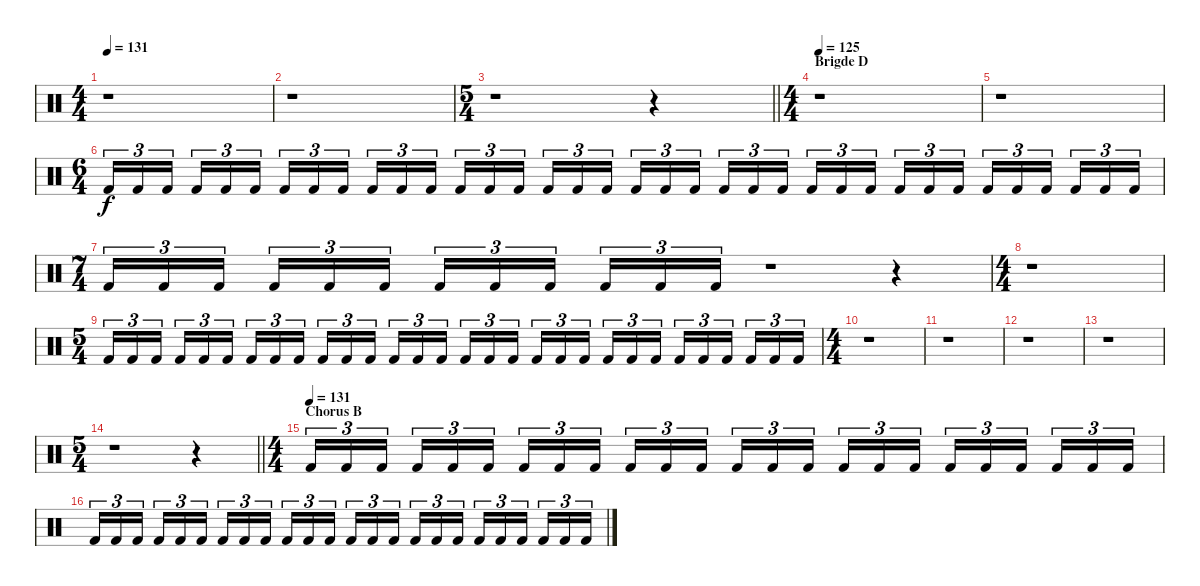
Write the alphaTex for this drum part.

\track "" {instrument percussion}
\staff {score}
\articulation defaults
\ts (4 4)
\tempo 131
\clef neutral
\ks c
r.1{dy f} |
r.1 |
\ts (5 4)
\barLineRight lightlight
r.1 r.4 |
\ts (4 4)
\section ("" "Brigde D")
\tempo 125
r.1 |
r.1 |
\ts (6 4)
"Kick (hit) 2".16{tu (3 2)} "Kick (hit) 2".16{tu (3 2)} "Kick (hit) 2".16{tu (3 2) beam splitsecondary} "Kick (hit) 2".16{tu (3 2)} "Kick (hit) 2".16{tu (3 2)} "Kick (hit) 2".16{tu (3 2) beam splitsecondary} "Kick (hit) 2".16{tu (3 2)} "Kick (hit) 2".16{tu (3 2)} "Kick (hit) 2".16{tu (3 2) beam splitsecondary} "Kick (hit) 2".16{tu (3 2)} "Kick (hit) 2".16{tu (3 2)} "Kick (hit) 2".16{tu (3 2) beam splitsecondary} "Kick (hit) 2".16{tu (3 2)} "Kick (hit) 2".16{tu (3 2)} "Kick (hit) 2".16{tu (3 2) beam splitsecondary} "Kick (hit) 2".16{tu (3 2)} "Kick (hit) 2".16{tu (3 2)} "Kick (hit) 2".16{tu (3 2)} "Kick (hit) 2".16{tu (3 2)} "Kick (hit) 2".16{tu (3 2)} "Kick (hit) 2".16{tu (3 2) beam splitsecondary} "Kick (hit) 2".16{tu (3 2)} "Kick (hit) 2".16{tu (3 2)} "Kick (hit) 2".16{tu (3 2) beam splitsecondary} "Kick (hit) 2".16{tu (3 2)} "Kick (hit) 2".16{tu (3 2)} "Kick (hit) 2".16{tu (3 2) beam splitsecondary} "Kick (hit) 2".16{tu (3 2)} "Kick (hit) 2".16{tu (3 2)} "Kick (hit) 2".16{tu (3 2) beam splitsecondary} "Kick (hit) 2".16{tu (3 2)} "Kick (hit) 2".16{tu (3 2)} "Kick (hit) 2".16{tu (3 2) beam splitsecondary} "Kick (hit) 2".16{tu (3 2)} "Kick (hit) 2".16{tu (3 2)} "Kick (hit) 2".16{tu (3 2)} |
\ts (7 4)
"Kick (hit) 2".16{tu (3 2)} "Kick (hit) 2".16{tu (3 2)} "Kick (hit) 2".16{tu (3 2) beam splitsecondary} "Kick (hit) 2".16{tu (3 2)} "Kick (hit) 2".16{tu (3 2)} "Kick (hit) 2".16{tu (3 2)} "Kick (hit) 2".16{tu (3 2)} "Kick (hit) 2".16{tu (3 2)} "Kick (hit) 2".16{tu (3 2) beam splitsecondary} "Kick (hit) 2".16{tu (3 2)} "Kick (hit) 2".16{tu (3 2)} "Kick (hit) 2".16{tu (3 2)} r.1 r.4 |
\ts (4 4)
r.1 |
\ts (5 4)
"Kick (hit) 2".16{tu (3 2)} "Kick (hit) 2".16{tu (3 2)} "Kick (hit) 2".16{tu (3 2) beam splitsecondary} "Kick (hit) 2".16{tu (3 2)} "Kick (hit) 2".16{tu (3 2)} "Kick (hit) 2".16{tu (3 2)} "Kick (hit) 2".16{tu (3 2)} "Kick (hit) 2".16{tu (3 2)} "Kick (hit) 2".16{tu (3 2) beam splitsecondary} "Kick (hit) 2".16{tu (3 2)} "Kick (hit) 2".16{tu (3 2)} "Kick (hit) 2".16{tu (3 2)} "Kick (hit) 2".16{tu (3 2)} "Kick (hit) 2".16{tu (3 2)} "Kick (hit) 2".16{tu (3 2) beam splitsecondary} "Kick (hit) 2".16{tu (3 2)} "Kick (hit) 2".16{tu (3 2)} "Kick (hit) 2".16{tu (3 2)} "Kick (hit) 2".16{tu (3 2)} "Kick (hit) 2".16{tu (3 2)} "Kick (hit) 2".16{tu (3 2) beam splitsecondary} "Kick (hit) 2".16{tu (3 2)} "Kick (hit) 2".16{tu (3 2)} "Kick (hit) 2".16{tu (3 2)} "Kick (hit) 2".16{tu (3 2)} "Kick (hit) 2".16{tu (3 2)} "Kick (hit) 2".16{tu (3 2) beam splitsecondary} "Kick (hit) 2".16{tu (3 2)} "Kick (hit) 2".16{tu (3 2)} "Kick (hit) 2".16{tu (3 2)} |
\ts (4 4)
r.1 |
r.1 |
r.1 |
r.1 |
\ts (5 4)
\barLineRight lightlight
r.1 r.4 |
\ts (4 4)
\section ("" "Chorus B")
\tempo (131)
"Kick (hit) 2".16{tu (3 2)} "Kick (hit) 2".16{tu (3 2)} "Kick (hit) 2".16{tu (3 2) beam splitsecondary} "Kick (hit) 2".16{tu (3 2)} "Kick (hit) 2".16{tu (3 2)} "Kick (hit) 2".16{tu (3 2)} "Kick (hit) 2".16{tu (3 2)} "Kick (hit) 2".16{tu (3 2)} "Kick (hit) 2".16{tu (3 2) beam splitsecondary} "Kick (hit) 2".16{tu (3 2)} "Kick (hit) 2".16{tu (3 2)} "Kick (hit) 2".16{tu (3 2)} "Kick (hit) 2".16{tu (3 2)} "Kick (hit) 2".16{tu (3 2)} "Kick (hit) 2".16{tu (3 2) beam splitsecondary} "Kick (hit) 2".16{tu (3 2)} "Kick (hit) 2".16{tu (3 2)} "Kick (hit) 2".16{tu (3 2)} "Kick (hit) 2".16{tu (3 2)} "Kick (hit) 2".16{tu (3 2)} "Kick (hit) 2".16{tu (3 2) beam splitsecondary} "Kick (hit) 2".16{tu (3 2)} "Kick (hit) 2".16{tu (3 2)} "Kick (hit) 2".16{tu (3 2)} |
"Kick (hit) 2".16{tu (3 2)} "Kick (hit) 2".16{tu (3 2)} "Kick (hit) 2".16{tu (3 2) beam splitsecondary} "Kick (hit) 2".16{tu (3 2)} "Kick (hit) 2".16{tu (3 2)} "Kick (hit) 2".16{tu (3 2)} "Kick (hit) 2".16{tu (3 2)} "Kick (hit) 2".16{tu (3 2)} "Kick (hit) 2".16{tu (3 2) beam splitsecondary} "Kick (hit) 2".16{tu (3 2)} "Kick (hit) 2".16{tu (3 2)} "Kick (hit) 2".16{tu (3 2)} "Kick (hit) 2".16{tu (3 2)} "Kick (hit) 2".16{tu (3 2)} "Kick (hit) 2".16{tu (3 2) beam splitsecondary} "Kick (hit) 2".16{tu (3 2)} "Kick (hit) 2".16{tu (3 2)} "Kick (hit) 2".16{tu (3 2)} "Kick (hit) 2".16{tu (3 2)} "Kick (hit) 2".16{tu (3 2)} "Kick (hit) 2".16{tu (3 2) beam splitsecondary} "Kick (hit) 2".16{tu (3 2)} "Kick (hit) 2".16{tu (3 2)} "Kick (hit) 2".16{tu (3 2)}
